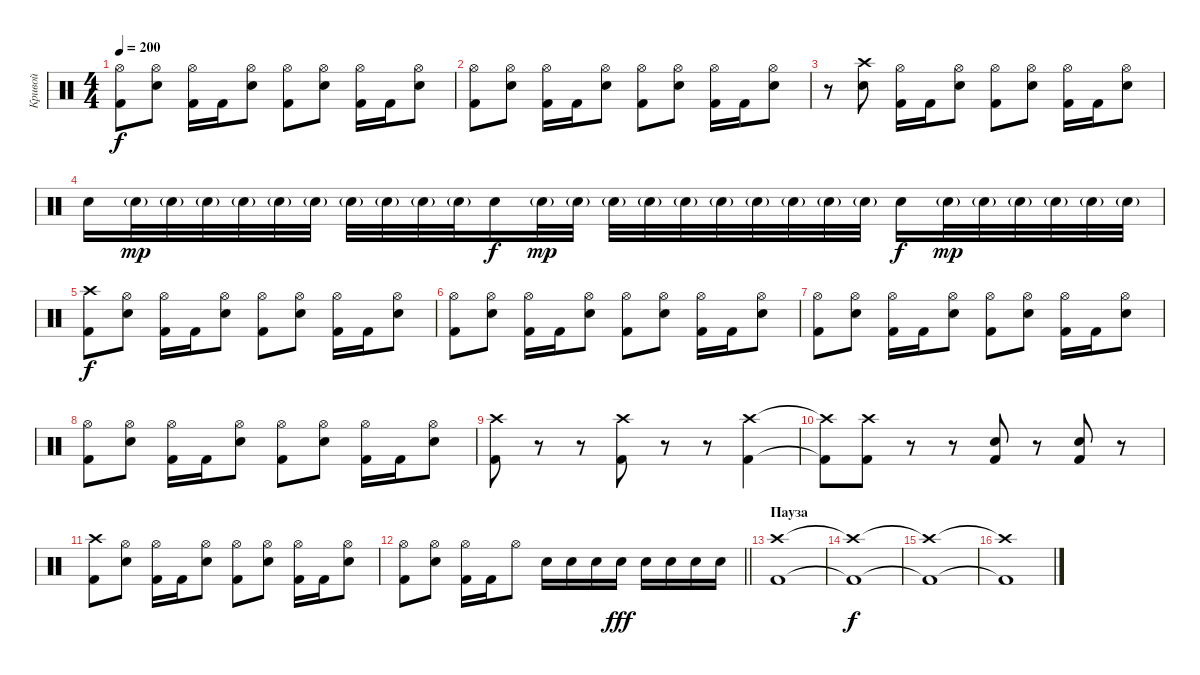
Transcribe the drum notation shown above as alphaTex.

\track ("Кривой" "Кривой") {instrument percussion}
\staff {score}
\articulation defaults
\ts (4 4)
\tempo 200
\clef neutral
\ks c
("Kick (hit) 2" "Hi-Hat (open)").8{dy f} ("Electric Snare (hit)" "Hi-Hat (open)").8 ("Kick (hit) 2" "Hi-Hat (open)").16 "Kick (hit) 2".16 ("Electric Snare (hit)" "Hi-Hat (open)").8 ("Kick (hit) 2" "Hi-Hat (open)").8 ("Electric Snare (hit)" "Hi-Hat (open)").8 ("Kick (hit) 2" "Hi-Hat (open)").16 "Kick (hit) 2".16 ("Electric Snare (hit)" "Hi-Hat (open)").8 |
("Kick (hit) 2" "Hi-Hat (open)").8 ("Electric Snare (hit)" "Hi-Hat (open)").8 ("Kick (hit) 2" "Hi-Hat (open)").16 "Kick (hit) 2".16 ("Electric Snare (hit)" "Hi-Hat (open)").8 ("Kick (hit) 2" "Hi-Hat (open)").8 ("Electric Snare (hit)" "Hi-Hat (open)").8 ("Kick (hit) 2" "Hi-Hat (open)").16 "Kick (hit) 2".16 ("Electric Snare (hit)" "Hi-Hat (open)").8 |
r.8 ("Electric Snare (hit)" "Crash high (hit)").8 ("Kick (hit) 2" "Hi-Hat (open)").16 "Kick (hit) 2".16 ("Electric Snare (hit)" "Hi-Hat (open)").8 ("Kick (hit) 2" "Hi-Hat (open)").8 ("Electric Snare (hit)" "Hi-Hat (open)").8 ("Kick (hit) 2" "Hi-Hat (open)").16 "Kick (hit) 2".16 ("Electric Snare (hit)" "Hi-Hat (open)").8 |
"Electric Snare (hit)".16 "Electric Snare (hit)"{g}.32{dy mp} "Electric Snare (hit)"{g}.32 "Electric Snare (hit)"{g}.32 "Electric Snare (hit)"{g}.32 "Electric Snare (hit)"{g}.32 "Electric Snare (hit)"{g}.32 "Electric Snare (hit)"{g}.32 "Electric Snare (hit)"{g}.32 "Electric Snare (hit)"{g}.32 "Electric Snare (hit)"{g}.32 "Electric Snare (hit)".16{dy f} "Electric Snare (hit)"{g}.32{dy mp} "Electric Snare (hit)"{g}.32 "Electric Snare (hit)"{g}.32 "Electric Snare (hit)"{g}.32 "Electric Snare (hit)"{g}.32 "Electric Snare (hit)"{g}.32 "Electric Snare (hit)"{g}.32 "Electric Snare (hit)"{g}.32 "Electric Snare (hit)"{g}.32 "Electric Snare (hit)"{g}.32 "Electric Snare (hit)".16{dy f} "Electric Snare (hit)"{g}.32{dy mp} "Electric Snare (hit)"{g}.32 "Electric Snare (hit)"{g}.32 "Electric Snare (hit)"{g}.32 "Electric Snare (hit)"{g}.32 "Electric Snare (hit)"{g}.32 |
("Kick (hit) 2" "Crash high (hit)").8{dy f} ("Electric Snare (hit)" "Hi-Hat (open)").8 ("Kick (hit) 2" "Hi-Hat (open)").16 "Kick (hit) 2".16 ("Electric Snare (hit)" "Hi-Hat (open)").8 ("Kick (hit) 2" "Hi-Hat (open)").8 ("Electric Snare (hit)" "Hi-Hat (open)").8 ("Kick (hit) 2" "Hi-Hat (open)").16 "Kick (hit) 2".16 ("Electric Snare (hit)" "Hi-Hat (open)").8 |
("Kick (hit) 2" "Hi-Hat (open)").8 ("Electric Snare (hit)" "Hi-Hat (open)").8 ("Kick (hit) 2" "Hi-Hat (open)").16 "Kick (hit) 2".16 ("Electric Snare (hit)" "Hi-Hat (open)").8 ("Kick (hit) 2" "Hi-Hat (open)").8 ("Electric Snare (hit)" "Hi-Hat (open)").8 ("Kick (hit) 2" "Hi-Hat (open)").16 "Kick (hit) 2".16 ("Electric Snare (hit)" "Hi-Hat (open)").8 |
("Kick (hit) 2" "Hi-Hat (open)").8 ("Electric Snare (hit)" "Hi-Hat (open)").8 ("Kick (hit) 2" "Hi-Hat (open)").16 "Kick (hit) 2".16 ("Electric Snare (hit)" "Hi-Hat (open)").8 ("Kick (hit) 2" "Hi-Hat (open)").8 ("Electric Snare (hit)" "Hi-Hat (open)").8 ("Kick (hit) 2" "Hi-Hat (open)").16 "Kick (hit) 2".16 ("Electric Snare (hit)" "Hi-Hat (open)").8 |
("Kick (hit) 2" "Hi-Hat (open)").8 ("Electric Snare (hit)" "Hi-Hat (open)").8 ("Kick (hit) 2" "Hi-Hat (open)").16 "Kick (hit) 2".16 ("Electric Snare (hit)" "Hi-Hat (open)").8 ("Kick (hit) 2" "Hi-Hat (open)").8 ("Electric Snare (hit)" "Hi-Hat (open)").8 ("Kick (hit) 2" "Hi-Hat (open)").16 "Kick (hit) 2".16 ("Electric Snare (hit)" "Hi-Hat (open)").8 |
("Kick (hit) 2" "Crash high (hit)").8 r.8 r.8 ("Kick (hit) 2" "Crash high (hit)").8 r.8 r.8 ("Kick (hit) 2" "Crash high (hit)").4 |
("Kick (hit) 2"{t} "Crash high (hit)"{t}).8 ("Kick (hit) 2" "Crash high (hit)").8 r.8 r.8 ("Kick (hit) 2" "Electric Snare (hit)").8 r.8 ("Kick (hit) 2" "Electric Snare (hit)").8 r.8 |
("Kick (hit) 2" "Crash high (hit)").8 ("Electric Snare (hit)" "Hi-Hat (open)").8 ("Kick (hit) 2" "Hi-Hat (open)").16 "Kick (hit) 2".16 ("Electric Snare (hit)" "Hi-Hat (open)").8 ("Kick (hit) 2" "Hi-Hat (open)").8 ("Electric Snare (hit)" "Hi-Hat (open)").8 ("Kick (hit) 2" "Hi-Hat (open)").16 "Kick (hit) 2".16 ("Electric Snare (hit)" "Hi-Hat (open)").8 |
\barLineRight lightlight
("Kick (hit) 2" "Hi-Hat (open)").8 ("Electric Snare (hit)" "Hi-Hat (open)").8 ("Kick (hit) 2" "Hi-Hat (open)").16 "Kick (hit) 2".16 "Hi-Hat (open)".8 "Electric Snare (hit)".16 "Electric Snare (hit)".16 "Electric Snare (hit)".16 "Electric Snare (hit)".16{dy fff} "Electric Snare (hit)".16 "Electric Snare (hit)".16 "Electric Snare (hit)".16 "Electric Snare (hit)".16 |
\section ("" "Пауза")
("Kick (hit) 2" "Crash high (hit)").1 |
("Kick (hit) 2"{t} "Crash high (hit)"{t}).1{dy f} |
("Kick (hit) 2"{t} "Crash high (hit)"{t}).1 |
("Kick (hit) 2"{t} "Crash high (hit)"{t}).1
